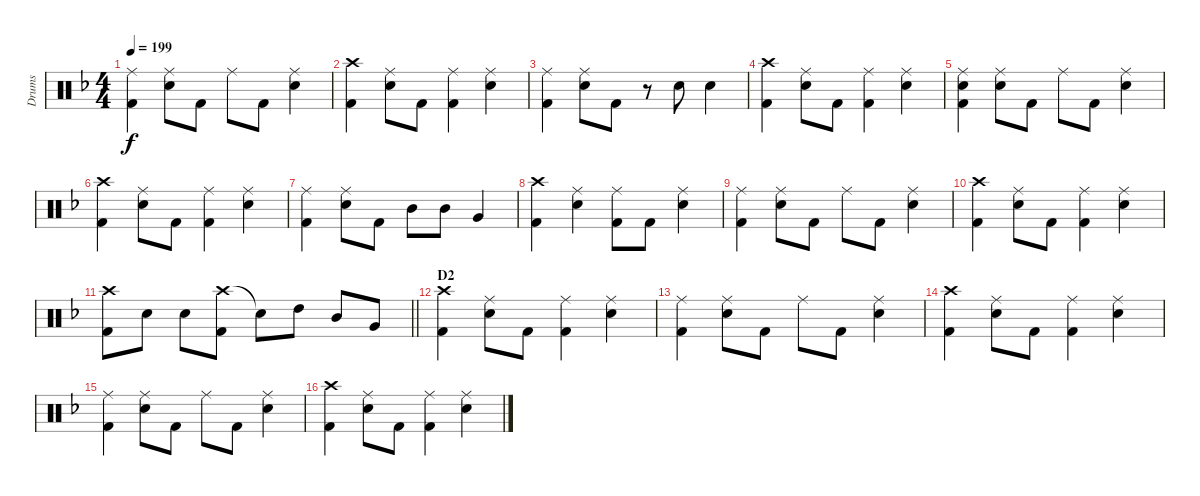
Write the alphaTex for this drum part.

\track ("Drums" "Drums") {instrument percussion}
\staff {score}
\articulation defaults
\ts (4 4)
\tempo 199
\clef neutral
\ks f
("Ride (middle)" "Kick (hit) 2").4{dy f} ("Ride (middle)" "Snare (hit) 2").8 "Kick (hit) 2".8 "Ride (middle)".8 "Kick (hit) 2".8 ("Ride (middle)" "Snare (hit) 2").4 |
("Crash high (hit)" "Kick (hit) 2").4 ("Ride (middle)" "Snare (hit) 2").8 "Kick (hit) 2".8 ("Ride (middle)" "Kick (hit) 2").4 ("Ride (middle)" "Snare (hit) 2").4 |
("Ride (middle)" "Kick (hit) 2").4 ("Ride (middle)" "Snare (hit) 2").8 "Kick (hit) 2".8 r.8 "Snare (hit) 2".8 "Snare (hit) 2".4 |
("Crash high (hit)" "Kick (hit) 2").4 ("Ride (middle)" "Snare (hit) 2").8 "Kick (hit) 2".8 ("Ride (middle)" "Kick (hit) 2").4 ("Ride (middle)" "Snare (hit) 2").4 |
("Ride (middle)" "Snare (hit) 2" "Kick (hit) 2").4 ("Ride (middle)" "Snare (hit) 2").8 "Kick (hit) 2".8 "Ride (middle)".8 "Kick (hit) 2".8 ("Ride (middle)" "Snare (hit) 2").4 |
("Crash high (hit)" "Kick (hit) 2").4 ("Ride (middle)" "Snare (hit) 2").8 "Kick (hit) 2".8 ("Ride (middle)" "Kick (hit) 2").4 ("Ride (middle)" "Snare (hit) 2").4 |
("Ride (middle)" "Kick (hit) 2").4 ("Ride (middle)" "Snare (hit) 2").8 "Kick (hit) 2".8 "Mid Tom (hit)".8 "Mid Tom (hit)".8 "Very Low Tom (hit)".4 |
("Crash high (hit)" "Kick (hit) 2").4 ("Ride (middle)" "Snare (hit) 2").4 ("Ride (middle)" "Kick (hit) 2").8 "Kick (hit) 2".8 ("Ride (middle)" "Snare (hit) 2").4 |
("Ride (middle)" "Kick (hit) 2").4 ("Ride (middle)" "Snare (hit) 2").8 "Kick (hit) 2".8 "Ride (middle)".8 "Kick (hit) 2".8 ("Ride (middle)" "Snare (hit) 2").4 |
("Crash high (hit)" "Kick (hit) 2").4 ("Ride (middle)" "Snare (hit) 2").8 "Kick (hit) 2".8 ("Ride (middle)" "Kick (hit) 2").4 ("Ride (middle)" "Snare (hit) 2").4 |
\barLineRight lightlight
("Crash high (hit)" "Kick (hit) 2").8 "Snare (hit) 2".8 "Snare (hit) 2".8 ("Crash high (hit)" "Kick (hit) 2").8 "Snare (hit)"{t}.8 "High Tom (hit)".8 "Mid Tom (hit)".8 "Very Low Tom (hit)".8 |
\section ("" "D2")
("Crash high (hit)" "Kick (hit) 2").4 ("Ride (middle)" "Snare (hit) 2").8 "Kick (hit) 2".8 ("Ride (middle)" "Kick (hit) 2").4 ("Ride (middle)" "Snare (hit) 2").4 |
("Ride (middle)" "Kick (hit) 2").4 ("Ride (middle)" "Snare (hit) 2").8 "Kick (hit) 2".8 "Ride (middle)".8 "Kick (hit) 2".8 ("Ride (middle)" "Snare (hit) 2").4 |
("Crash high (hit)" "Kick (hit) 2").4 ("Ride (middle)" "Snare (hit) 2").8 "Kick (hit) 2".8 ("Ride (middle)" "Kick (hit) 2").4 ("Ride (middle)" "Snare (hit) 2").4 |
("Ride (middle)" "Kick (hit) 2").4 ("Ride (middle)" "Snare (hit) 2").8 "Kick (hit) 2".8 "Ride (middle)".8 "Kick (hit) 2".8 ("Ride (middle)" "Snare (hit) 2").4 |
("Crash high (hit)" "Kick (hit) 2").4 ("Ride (middle)" "Snare (hit) 2").8 "Kick (hit) 2".8 ("Ride (middle)" "Kick (hit) 2").4 ("Ride (middle)" "Snare (hit) 2").4
